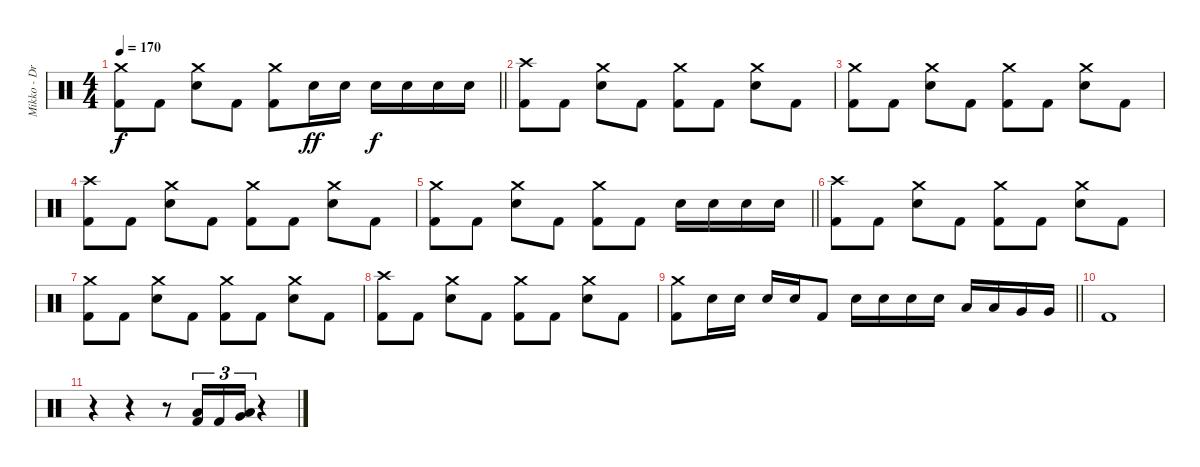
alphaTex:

\track ("Mikko - Drums" "Mikko - Dr") {instrument percussion}
\staff {score}
\articulation defaults
\ts (4 4)
\tempo 170
\clef neutral
\barLineRight lightlight
\ks c
("Crash medium (hit)" "Kick (hit) 2").8{dy f} "Kick (hit) 2".8 ("Crash medium (hit)" "Snare (hit) 2").8 "Kick (hit) 2".8 ("Crash medium (hit)" "Kick (hit) 2").8 "Snare (hit) 2".16{dy ff} "Snare (hit) 2".16 "Snare (hit) 2".16{dy f} "Snare (hit) 2".16 "Snare (hit) 2".16 "Snare (hit) 2".16 |
("Crash high (hit)" "Kick (hit) 2").8 "Kick (hit) 2".8 ("Crash medium (hit)" "Snare (hit) 2").8 "Kick (hit) 2".8 ("Crash medium (hit)" "Kick (hit) 2").8 "Kick (hit) 2".8 ("Crash medium (hit)" "Snare (hit) 2").8 "Kick (hit) 2".8 |
("Crash medium (hit)" "Kick (hit) 2").8 "Kick (hit) 2".8 ("Crash medium (hit)" "Snare (hit) 2").8 "Kick (hit) 2".8 ("Crash medium (hit)" "Kick (hit) 2").8 "Kick (hit) 2".8 ("Crash medium (hit)" "Snare (hit) 2").8 "Kick (hit) 2".8 |
("Crash high (hit)" "Kick (hit) 2").8 "Kick (hit) 2".8 ("Crash medium (hit)" "Snare (hit) 2").8 "Kick (hit) 2".8 ("Crash medium (hit)" "Kick (hit) 2").8 "Kick (hit) 2".8 ("Crash medium (hit)" "Snare (hit) 2").8 "Kick (hit) 2".8 |
\barLineRight lightlight
("Crash medium (hit)" "Kick (hit) 2").8 "Kick (hit) 2".8 ("Crash medium (hit)" "Snare (hit) 2").8 "Kick (hit) 2".8 ("Crash medium (hit)" "Kick (hit) 2").8 "Kick (hit) 2".8 "Snare (hit) 2".16 "Snare (hit) 2".16 "Snare (hit) 2".16 "Snare (hit) 2".16 |
("Crash high (hit)" "Kick (hit) 2").8 "Kick (hit) 2".8 ("Crash medium (hit)" "Snare (hit) 2").8 "Kick (hit) 2".8 ("Crash medium (hit)" "Kick (hit) 2").8 "Kick (hit) 2".8 ("Crash medium (hit)" "Snare (hit) 2").8 "Kick (hit) 2".8 |
("Crash medium (hit)" "Kick (hit) 2").8 "Kick (hit) 2".8 ("Crash medium (hit)" "Snare (hit) 2").8 "Kick (hit) 2".8 ("Crash medium (hit)" "Kick (hit) 2").8 "Kick (hit) 2".8 ("Crash medium (hit)" "Snare (hit) 2").8 "Kick (hit) 2".8 |
("Crash high (hit)" "Kick (hit) 2").8 "Kick (hit) 2".8 ("Crash medium (hit)" "Snare (hit) 2").8 "Kick (hit) 2".8 ("Crash medium (hit)" "Kick (hit) 2").8 "Kick (hit) 2".8 ("Crash medium (hit)" "Snare (hit) 2").8 "Kick (hit) 2".8 |
\barLineRight lightlight
("Crash medium (hit)" "Kick (hit) 2").8 "Snare (hit) 2".16 "Snare (hit) 2".16 "Snare (hit) 2".16 "Snare (hit) 2".16 "Kick (hit) 2".8 "Snare (hit) 2".16 "Snare (hit) 2".16 "Snare (hit) 2".16 "Snare (hit) 2".16 "Low Tom (hit)".16 "Low Tom (hit)".16 "Very Low Tom (hit)".16 "Very Low Tom (hit)".16 |
"Kick (hit) 2".1 |
r.4 r.4 r.8 ("Low Tom (hit)" "Kick (hit) 2").16{tu (3 2)} "Kick (hit) 2".16{tu (3 2)} ("Low Tom (hit)" "Very Low Tom (hit)").16{tu (3 2)} r.4
